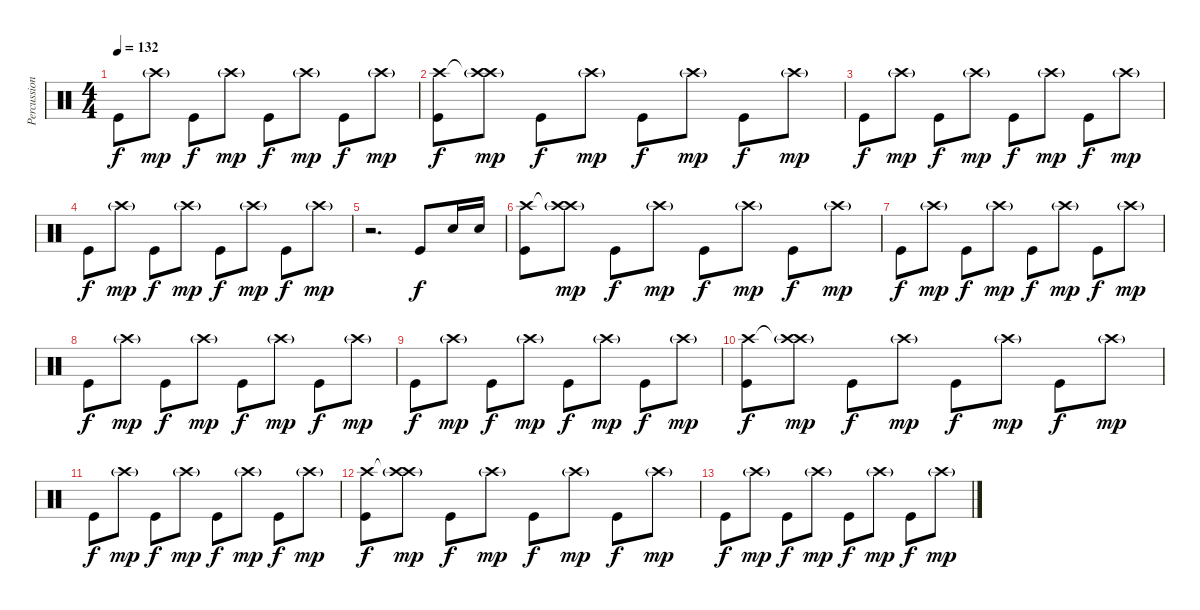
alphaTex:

\track ("Percussion" "Percussion") {instrument percussion}
\staff {score}
\articulation defaults
\ts (4 4)
\tempo 132
\clef neutral
\ks c "Kick (hit)".8{dy f} "Crash high (hit)"{g}.8{dy mp} "Kick (hit)".8{dy f} "Crash high (hit)"{g}.8{dy mp} "Kick (hit)".8{dy f} "Crash high (hit)"{g}.8{dy mp} "Kick (hit)".8{dy f} "Crash high (hit)"{g}.8{dy mp}
|
("Crash high (hit)" "Kick (hit)").8{dy f} ("Crash high (hit)"{t} "Crash high (hit)"{g}).8{dy mp} "Kick (hit)".8{dy f} "Crash high (hit)"{g}.8{dy mp} "Kick (hit)".8{dy f} "Crash high (hit)"{g}.8{dy mp} "Kick (hit)".8{dy f} "Crash high (hit)"{g}.8{dy mp} |
"Kick (hit)".8{dy f} "Crash high (hit)"{g}.8{dy mp} "Kick (hit)".8{dy f} "Crash high (hit)"{g}.8{dy mp} "Kick (hit)".8{dy f} "Crash high (hit)"{g}.8{dy mp} "Kick (hit)".8{dy f} "Crash high (hit)"{g}.8{dy mp} |
"Kick (hit)".8{dy f} "Crash high (hit)"{g}.8{dy mp} "Kick (hit)".8{dy f} "Crash high (hit)"{g}.8{dy mp} "Kick (hit)".8{dy f} "Crash high (hit)"{g}.8{dy mp} "Kick (hit)".8{dy f} "Crash high (hit)"{g}.8{dy mp} |
r.2{d} "Kick (hit)".8{dy f} "Electric Snare (hit)".16 "Electric Snare (hit)".16 |
("Crash high (hit)" "Kick (hit)").8 ("Crash high (hit)"{t} "Crash high (hit)"{g}).8{dy mp} "Kick (hit)".8{dy f} "Crash high (hit)"{g}.8{dy mp} "Kick (hit)".8{dy f} "Crash high (hit)"{g}.8{dy mp} "Kick (hit)".8{dy f} "Crash high (hit)"{g}.8{dy mp} |
"Kick (hit)".8{dy f} "Crash high (hit)"{g}.8{dy mp} "Kick (hit)".8{dy f} "Crash high (hit)"{g}.8{dy mp} "Kick (hit)".8{dy f} "Crash high (hit)"{g}.8{dy mp} "Kick (hit)".8{dy f} "Crash high (hit)"{g}.8{dy mp} |
"Kick (hit)".8{dy f} "Crash high (hit)"{g}.8{dy mp} "Kick (hit)".8{dy f} "Crash high (hit)"{g}.8{dy mp} "Kick (hit)".8{dy f} "Crash high (hit)"{g}.8{dy mp} "Kick (hit)".8{dy f} "Crash high (hit)"{g}.8{dy mp} |
"Kick (hit)".8{dy f} "Crash high (hit)"{g}.8{dy mp} "Kick (hit)".8{dy f} "Crash high (hit)"{g}.8{dy mp} "Kick (hit)".8{dy f} "Crash high (hit)"{g}.8{dy mp} "Kick (hit)".8{dy f} "Crash high (hit)"{g}.8{dy mp} |
("Crash high (hit)" "Kick (hit)").8{dy f} ("Crash high (hit)"{t} "Crash high (hit)"{g}).8{dy mp} "Kick (hit)".8{dy f} "Crash high (hit)"{g}.8{dy mp} "Kick (hit)".8{dy f} "Crash high (hit)"{g}.8{dy mp} "Kick (hit)".8{dy f} "Crash high (hit)"{g}.8{dy mp} |
"Kick (hit)".8{dy f} "Crash high (hit)"{g}.8{dy mp} "Kick (hit)".8{dy f} "Crash high (hit)"{g}.8{dy mp} "Kick (hit)".8{dy f} "Crash high (hit)"{g}.8{dy mp} "Kick (hit)".8{dy f} "Crash high (hit)"{g}.8{dy mp} |
("Crash high (hit)" "Kick (hit)").8{dy f} ("Crash high (hit)"{t} "Crash high (hit)"{g}).8{dy mp} "Kick (hit)".8{dy f} "Crash high (hit)"{g}.8{dy mp} "Kick (hit)".8{dy f} "Crash high (hit)"{g}.8{dy mp} "Kick (hit)".8{dy f} "Crash high (hit)"{g}.8{dy mp} |
"Kick (hit)".8{dy f} "Crash high (hit)"{g}.8{dy mp} "Kick (hit)".8{dy f} "Crash high (hit)"{g}.8{dy mp} "Kick (hit)".8{dy f} "Crash high (hit)"{g}.8{dy mp} "Kick (hit)".8{dy f} "Crash high (hit)"{g}.8{dy mp}
